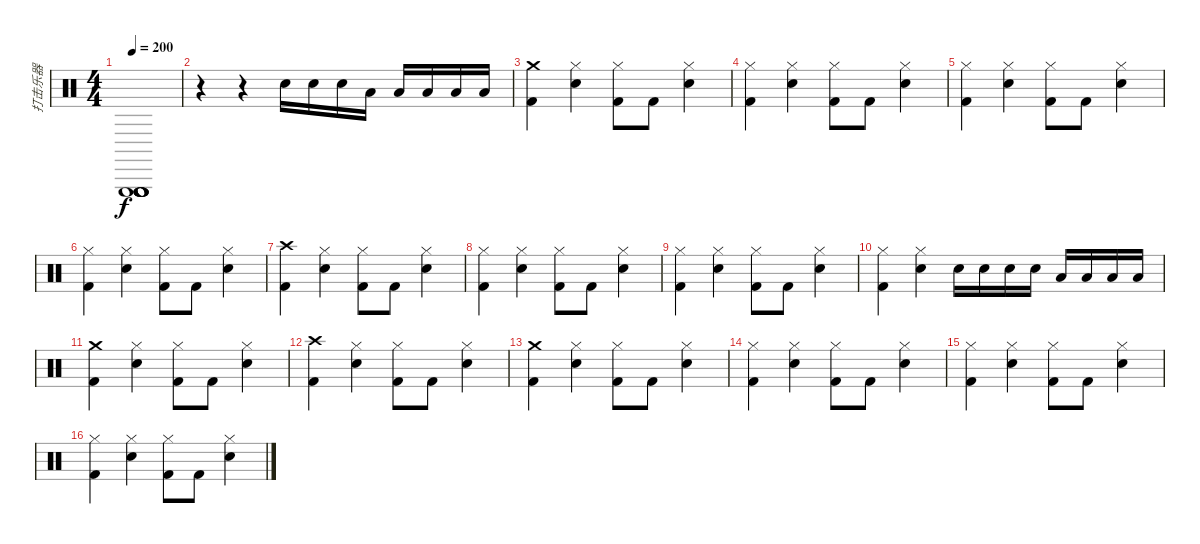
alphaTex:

\track ("打击乐器" "打击乐器") {instrument percussion}
\staff {score}
\articulation defaults
\ts (4 4)
\tempo 200
\clef neutral
\ks c
("Triangle (hit)" "Triangle (hit)" "Triangle (hit)" "Triangle (hit)" "Triangle (hit)" "Triangle (hit)").1{dy f} |
r.4 r.4 "Snare (hit) 2".16 "Snare (hit) 2".16 "Snare (hit) 2".16 "Low Floor Tom (hit)".16 "Low Floor Tom (hit)".16 "Low Floor Tom (hit)".16 "Low Tom (hit)".16 "Low Tom (hit)".16 |
("Crash medium (hit)" "Kick (hit) 2").4 ("Hi-Hat (closed)" "Snare (hit) 2").4 ("Hi-Hat (closed)" "Kick (hit) 2").8 "Kick (hit) 2".8 ("Hi-Hat (closed)" "Snare (hit) 2").4 |
("Hi-Hat (closed)" "Kick (hit) 2").4 ("Hi-Hat (closed)" "Snare (hit) 2").4 ("Hi-Hat (closed)" "Kick (hit) 2").8 "Kick (hit) 2".8 ("Hi-Hat (closed)" "Snare (hit) 2").4 |
("Hi-Hat (closed)" "Kick (hit) 2").4 ("Hi-Hat (closed)" "Snare (hit) 2").4 ("Hi-Hat (closed)" "Kick (hit) 2").8 "Kick (hit) 2".8 ("Hi-Hat (closed)" "Snare (hit) 2").4 |
("Hi-Hat (closed)" "Kick (hit) 2").4 ("Hi-Hat (closed)" "Snare (hit) 2").4 ("Hi-Hat (closed)" "Kick (hit) 2").8 "Kick (hit) 2".8 ("Hi-Hat (closed)" "Snare (hit) 2").4 |
("Crash high (hit)" "Kick (hit) 2").4 ("Hi-Hat (closed)" "Snare (hit) 2").4 ("Hi-Hat (closed)" "Kick (hit) 2").8 "Kick (hit) 2".8 ("Hi-Hat (closed)" "Snare (hit) 2").4 |
("Hi-Hat (closed)" "Kick (hit) 2").4 ("Hi-Hat (closed)" "Snare (hit) 2").4 ("Hi-Hat (closed)" "Kick (hit) 2").8 "Kick (hit) 2".8 ("Hi-Hat (closed)" "Snare (hit) 2").4 |
("Hi-Hat (closed)" "Kick (hit) 2").4 ("Hi-Hat (closed)" "Snare (hit) 2").4 ("Hi-Hat (closed)" "Kick (hit) 2").8 "Kick (hit) 2".8 ("Hi-Hat (closed)" "Snare (hit) 2").4 |
("Hi-Hat (closed)" "Kick (hit) 2").4 ("Hi-Hat (closed)" "Snare (hit) 2").4 "Snare (hit) 2".16 "Snare (hit) 2".16 "Snare (hit) 2".16 "Snare (hit) 2".16 "Low Floor Tom (hit)".16 "Low Floor Tom (hit)".16 "Low Tom (hit)".16 "Low Tom (hit)".16 |
("Crash medium (hit)" "Kick (hit) 2").4 ("Hi-Hat (closed)" "Snare (hit) 2").4 ("Hi-Hat (closed)" "Kick (hit) 2").8 "Kick (hit) 2".8 ("Hi-Hat (closed)" "Snare (hit) 2").4 |
("Crash high (hit)" "Kick (hit) 2").4 ("Hi-Hat (closed)" "Snare (hit) 2").4 ("Hi-Hat (closed)" "Kick (hit) 2").8 "Kick (hit) 2".8 ("Hi-Hat (closed)" "Snare (hit) 2").4 |
("Crash medium (hit)" "Kick (hit) 2").4 ("Hi-Hat (closed)" "Snare (hit) 2").4 ("Hi-Hat (closed)" "Kick (hit) 2").8 "Kick (hit) 2".8 ("Hi-Hat (closed)" "Snare (hit) 2").4 |
("Hi-Hat (closed)" "Kick (hit) 2").4 ("Hi-Hat (closed)" "Snare (hit) 2").4 ("Hi-Hat (closed)" "Kick (hit) 2").8 "Kick (hit) 2".8 ("Hi-Hat (closed)" "Snare (hit) 2").4 |
("Hi-Hat (closed)" "Kick (hit) 2").4 ("Hi-Hat (closed)" "Snare (hit) 2").4 ("Hi-Hat (closed)" "Kick (hit) 2").8 "Kick (hit) 2".8 ("Hi-Hat (closed)" "Snare (hit) 2").4 |
("Hi-Hat (closed)" "Kick (hit) 2").4 ("Hi-Hat (closed)" "Snare (hit) 2").4 ("Hi-Hat (closed)" "Kick (hit) 2").8 "Kick (hit) 2".8 ("Hi-Hat (closed)" "Snare (hit) 2").4
